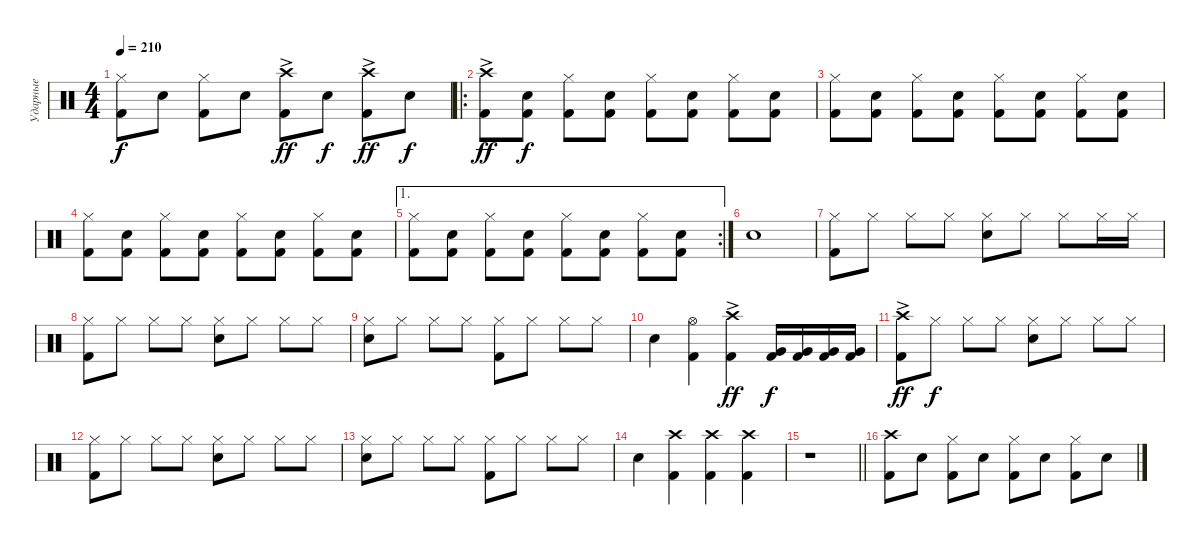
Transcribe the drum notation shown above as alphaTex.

\track ("Ударные" "Ударные") {instrument percussion}
\staff {score}
\articulation defaults
\ts (4 4)
\tempo 210
\clef neutral
\ks c
("Kick (hit) 2" "Hi-Hat (closed)").8{dy f} "Snare (hit) 2".8 ("Kick (hit) 2" "Hi-Hat (closed)").8 "Snare (hit) 2".8 ("Kick (hit) 2" "Crash high (hit)"{ac}).8{dy ff} "Snare (hit) 2".8{dy f} ("Kick (hit) 2" "Crash high (hit)"{ac}).8{dy ff} "Snare (hit) 2".8{dy f} |
\ro
("Kick (hit) 2" "Crash high (hit)"{ac}).8{dy ff} ("Kick (hit) 2" "Snare (hit) 2").8{dy f} ("Kick (hit) 2" "Hi-Hat (closed)").8 ("Kick (hit) 2" "Snare (hit) 2").8 ("Kick (hit) 2" "Hi-Hat (closed)").8 ("Kick (hit) 2" "Snare (hit) 2").8 ("Kick (hit) 2" "Hi-Hat (closed)").8 ("Kick (hit) 2" "Snare (hit) 2").8 |
("Kick (hit) 2" "Hi-Hat (closed)").8 ("Kick (hit) 2" "Snare (hit) 2").8 ("Kick (hit) 2" "Hi-Hat (closed)").8 ("Kick (hit) 2" "Snare (hit) 2").8 ("Kick (hit) 2" "Hi-Hat (closed)").8 ("Kick (hit) 2" "Snare (hit) 2").8 ("Kick (hit) 2" "Hi-Hat (closed)").8 ("Kick (hit) 2" "Snare (hit) 2").8 |
("Kick (hit) 2" "Hi-Hat (closed)").8 ("Kick (hit) 2" "Snare (hit) 2").8 ("Kick (hit) 2" "Hi-Hat (closed)").8 ("Kick (hit) 2" "Snare (hit) 2").8 ("Kick (hit) 2" "Hi-Hat (closed)").8 ("Kick (hit) 2" "Snare (hit) 2").8 ("Kick (hit) 2" "Hi-Hat (closed)").8 ("Kick (hit) 2" "Snare (hit) 2").8 |
\ae 1
\rc 2
("Kick (hit) 2" "Hi-Hat (closed)").8 ("Kick (hit) 2" "Snare (hit) 2").8 ("Kick (hit) 2" "Hi-Hat (closed)").8 ("Kick (hit) 2" "Snare (hit) 2").8 ("Kick (hit) 2" "Hi-Hat (closed)").8 ("Kick (hit) 2" "Snare (hit) 2").8 ("Kick (hit) 2" "Hi-Hat (closed)").8 ("Kick (hit) 2" "Snare (hit) 2").8 |
"Snare (hit) 2".1 |
("Kick (hit) 2" "Hi-Hat (closed)").8 "Hi-Hat (closed)".8 "Hi-Hat (closed)".8 "Hi-Hat (closed)".8 ("Snare (hit) 2" "Hi-Hat (closed)").8 "Hi-Hat (closed)".8 "Hi-Hat (closed)".8 "Hi-Hat (closed)".16 "Hi-Hat (closed)".16 |
("Kick (hit) 2" "Hi-Hat (closed)").8 "Hi-Hat (closed)".8 "Hi-Hat (closed)".8 "Hi-Hat (closed)".8 ("Snare (hit) 2" "Hi-Hat (closed)").8 "Hi-Hat (closed)".8 "Hi-Hat (closed)".8 "Hi-Hat (closed)".8 |
("Snare (hit) 2" "Hi-Hat (closed)").8 "Hi-Hat (closed)".8 "Hi-Hat (closed)".8 "Hi-Hat (closed)".8 ("Kick (hit) 2" "Hi-Hat (closed)").8 "Hi-Hat (closed)".8 "Hi-Hat (closed)".8 "Hi-Hat (closed)".8 |
"Snare (hit) 2".4 ("Kick (hit) 2" "Hi-Hat (open)").4 ("Kick (hit) 2" "Crash high (hit)"{ac}).4{dy ff} ("Kick (hit) 2" "Very Low Tom (hit)").16{dy f} ("Kick (hit) 2" "Very Low Tom (hit)").16 ("Kick (hit) 2" "Very Low Tom (hit)").16 ("Kick (hit) 2" "Very Low Tom (hit)").16 |
("Kick (hit) 2" "Crash high (hit)"{ac}).8{dy ff} "Hi-Hat (closed)".8{dy f} "Hi-Hat (closed)".8 "Hi-Hat (closed)".8 ("Snare (hit) 2" "Hi-Hat (closed)").8 "Hi-Hat (closed)".8 "Hi-Hat (closed)".8 "Hi-Hat (closed)".8 |
("Kick (hit) 2" "Hi-Hat (closed)").8 "Hi-Hat (closed)".8 "Hi-Hat (closed)".8 "Hi-Hat (closed)".8 ("Snare (hit) 2" "Hi-Hat (closed)").8 "Hi-Hat (closed)".8 "Hi-Hat (closed)".8 "Hi-Hat (closed)".8 |
("Snare (hit) 2" "Hi-Hat (closed)").8 "Hi-Hat (closed)".8 "Hi-Hat (closed)".8 "Hi-Hat (closed)".8 ("Kick (hit) 2" "Hi-Hat (closed)").8 "Hi-Hat (closed)".8 "Hi-Hat (closed)".8 "Hi-Hat (closed)".8 |
"Snare (hit) 2".4 ("Kick (hit) 2" "Crash high (hit)").4 ("Kick (hit) 2" "Crash high (hit)").4 ("Kick (hit) 2" "Crash high (hit)").4 |
\barLineRight lightlight
r.1 |
("Kick (hit) 2" "Crash high (hit)").8 "Snare (hit) 2".8 ("Kick (hit) 2" "Hi-Hat (closed)").8 "Snare (hit) 2".8 ("Kick (hit) 2" "Hi-Hat (closed)").8 "Snare (hit) 2".8 ("Kick (hit) 2" "Hi-Hat (closed)").8 "Snare (hit) 2".8
